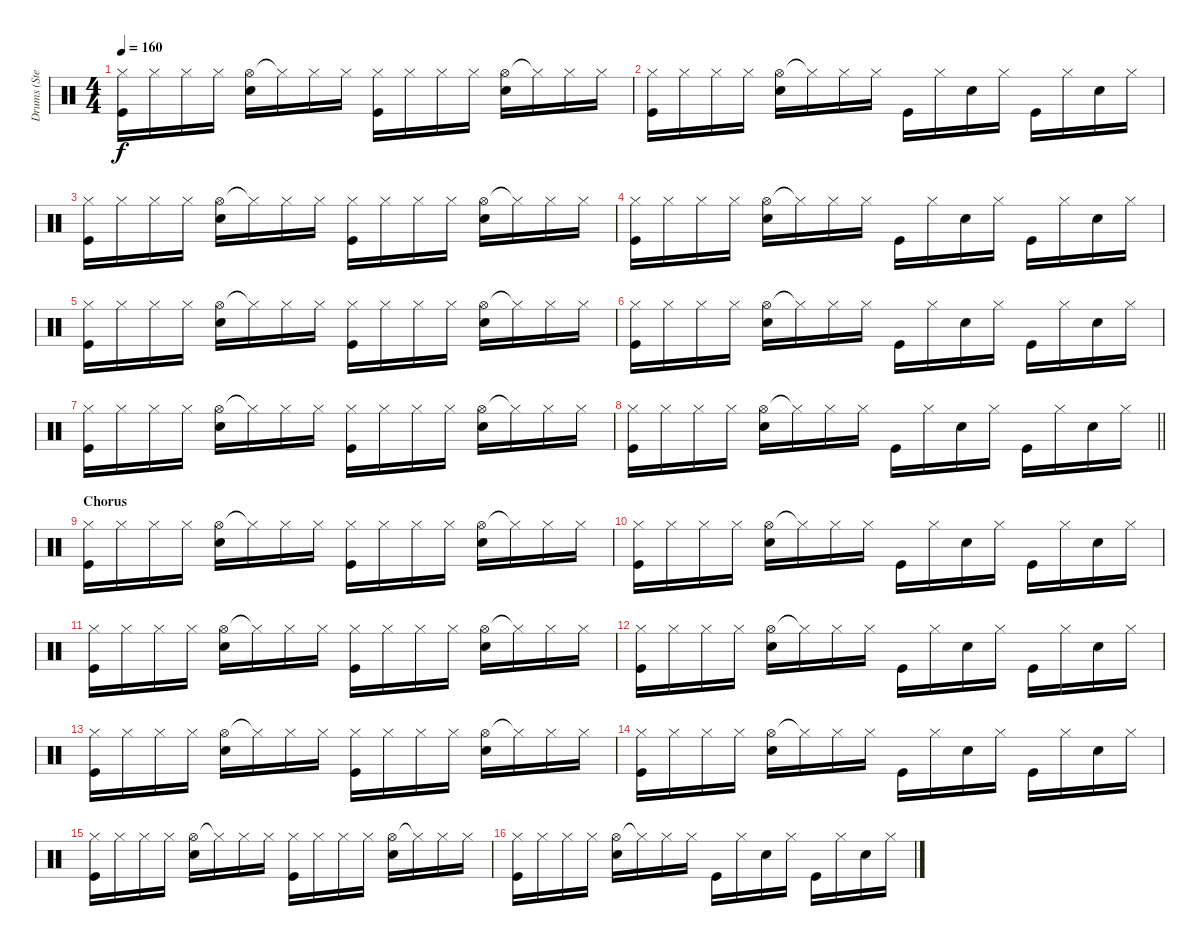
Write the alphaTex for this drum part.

\track ("Drums (Stephen Morris)" "Drums (Ste") {instrument percussion}
\staff {score}
\articulation defaults
\ts (4 4)
\tempo 160
\clef neutral
\ks c
("Hi-Hat (closed)" "Kick (hit)").16{dy f} "Hi-Hat (closed)".16 "Hi-Hat (closed)".16 "Hi-Hat (closed)".16 ("Hi-Hat (open)" "Electric Snare (hit)").16 "Hi-Hat (closed)"{t}.16 "Hi-Hat (closed)".16 "Hi-Hat (closed)".16 ("Hi-Hat (closed)" "Kick (hit)").16 "Hi-Hat (closed)".16 "Hi-Hat (closed)".16 "Hi-Hat (closed)".16 ("Hi-Hat (open)" "Electric Snare (hit)").16 "Hi-Hat (closed)"{t}.16 "Hi-Hat (closed)".16 "Hi-Hat (closed)".16 |
("Hi-Hat (closed)" "Kick (hit)").16 "Hi-Hat (closed)".16 "Hi-Hat (closed)".16 "Hi-Hat (closed)".16 ("Hi-Hat (open)" "Electric Snare (hit)").16 "Hi-Hat (closed)"{t}.16 "Hi-Hat (closed)".16 "Hi-Hat (closed)".16 "Kick (hit)".16 "Hi-Hat (closed)".16 "Electric Snare (hit)".16 "Hi-Hat (closed)".16 "Kick (hit)".16 "Hi-Hat (closed)".16 "Electric Snare (hit)".16 "Hi-Hat (closed)".16 |
("Hi-Hat (closed)" "Kick (hit)").16 "Hi-Hat (closed)".16 "Hi-Hat (closed)".16 "Hi-Hat (closed)".16 ("Hi-Hat (open)" "Electric Snare (hit)").16 "Hi-Hat (closed)"{t}.16 "Hi-Hat (closed)".16 "Hi-Hat (closed)".16 ("Hi-Hat (closed)" "Kick (hit)").16 "Hi-Hat (closed)".16 "Hi-Hat (closed)".16 "Hi-Hat (closed)".16 ("Hi-Hat (open)" "Electric Snare (hit)").16 "Hi-Hat (closed)"{t}.16 "Hi-Hat (closed)".16 "Hi-Hat (closed)".16 |
("Hi-Hat (closed)" "Kick (hit)").16 "Hi-Hat (closed)".16 "Hi-Hat (closed)".16 "Hi-Hat (closed)".16 ("Hi-Hat (open)" "Electric Snare (hit)").16 "Hi-Hat (closed)"{t}.16 "Hi-Hat (closed)".16 "Hi-Hat (closed)".16 "Kick (hit)".16 "Hi-Hat (closed)".16 "Electric Snare (hit)".16 "Hi-Hat (closed)".16 "Kick (hit)".16 "Hi-Hat (closed)".16 "Electric Snare (hit)".16 "Hi-Hat (closed)".16 |
("Hi-Hat (closed)" "Kick (hit)").16 "Hi-Hat (closed)".16 "Hi-Hat (closed)".16 "Hi-Hat (closed)".16 ("Hi-Hat (open)" "Electric Snare (hit)").16 "Hi-Hat (closed)"{t}.16 "Hi-Hat (closed)".16 "Hi-Hat (closed)".16 ("Hi-Hat (closed)" "Kick (hit)").16 "Hi-Hat (closed)".16 "Hi-Hat (closed)".16 "Hi-Hat (closed)".16 ("Hi-Hat (open)" "Electric Snare (hit)").16 "Hi-Hat (closed)"{t}.16 "Hi-Hat (closed)".16 "Hi-Hat (closed)".16 |
("Hi-Hat (closed)" "Kick (hit)").16 "Hi-Hat (closed)".16 "Hi-Hat (closed)".16 "Hi-Hat (closed)".16 ("Hi-Hat (open)" "Electric Snare (hit)").16 "Hi-Hat (closed)"{t}.16 "Hi-Hat (closed)".16 "Hi-Hat (closed)".16 "Kick (hit)".16 "Hi-Hat (closed)".16 "Electric Snare (hit)".16 "Hi-Hat (closed)".16 "Kick (hit)".16 "Hi-Hat (closed)".16 "Electric Snare (hit)".16 "Hi-Hat (closed)".16 |
("Hi-Hat (closed)" "Kick (hit)").16 "Hi-Hat (closed)".16 "Hi-Hat (closed)".16 "Hi-Hat (closed)".16 ("Hi-Hat (open)" "Electric Snare (hit)").16 "Hi-Hat (closed)"{t}.16 "Hi-Hat (closed)".16 "Hi-Hat (closed)".16 ("Hi-Hat (closed)" "Kick (hit)").16 "Hi-Hat (closed)".16 "Hi-Hat (closed)".16 "Hi-Hat (closed)".16 ("Hi-Hat (open)" "Electric Snare (hit)").16 "Hi-Hat (closed)"{t}.16 "Hi-Hat (closed)".16 "Hi-Hat (closed)".16 |
\barLineRight lightlight
("Hi-Hat (closed)" "Kick (hit)").16 "Hi-Hat (closed)".16 "Hi-Hat (closed)".16 "Hi-Hat (closed)".16 ("Hi-Hat (open)" "Electric Snare (hit)").16 "Hi-Hat (closed)"{t}.16 "Hi-Hat (closed)".16 "Hi-Hat (closed)".16 "Kick (hit)".16 "Hi-Hat (closed)".16 "Electric Snare (hit)".16 "Hi-Hat (closed)".16 "Kick (hit)".16 "Hi-Hat (closed)".16 "Electric Snare (hit)".16 "Hi-Hat (closed)".16 |
\section ("" "Chorus")
("Hi-Hat (closed)" "Kick (hit)").16 "Hi-Hat (closed)".16 "Hi-Hat (closed)".16 "Hi-Hat (closed)".16 ("Hi-Hat (open)" "Electric Snare (hit)").16 "Hi-Hat (closed)"{t}.16 "Hi-Hat (closed)".16 "Hi-Hat (closed)".16 ("Hi-Hat (closed)" "Kick (hit)").16 "Hi-Hat (closed)".16 "Hi-Hat (closed)".16 "Hi-Hat (closed)".16 ("Hi-Hat (open)" "Electric Snare (hit)").16 "Hi-Hat (closed)"{t}.16 "Hi-Hat (closed)".16 "Hi-Hat (closed)".16 |
("Hi-Hat (closed)" "Kick (hit)").16 "Hi-Hat (closed)".16 "Hi-Hat (closed)".16 "Hi-Hat (closed)".16 ("Hi-Hat (open)" "Electric Snare (hit)").16 "Hi-Hat (closed)"{t}.16 "Hi-Hat (closed)".16 "Hi-Hat (closed)".16 "Kick (hit)".16 "Hi-Hat (closed)".16 "Electric Snare (hit)".16 "Hi-Hat (closed)".16 "Kick (hit)".16 "Hi-Hat (closed)".16 "Electric Snare (hit)".16 "Hi-Hat (closed)".16 |
("Hi-Hat (closed)" "Kick (hit)").16 "Hi-Hat (closed)".16 "Hi-Hat (closed)".16 "Hi-Hat (closed)".16 ("Hi-Hat (open)" "Electric Snare (hit)").16 "Hi-Hat (closed)"{t}.16 "Hi-Hat (closed)".16 "Hi-Hat (closed)".16 ("Hi-Hat (closed)" "Kick (hit)").16 "Hi-Hat (closed)".16 "Hi-Hat (closed)".16 "Hi-Hat (closed)".16 ("Hi-Hat (open)" "Electric Snare (hit)").16 "Hi-Hat (closed)"{t}.16 "Hi-Hat (closed)".16 "Hi-Hat (closed)".16 |
("Hi-Hat (closed)" "Kick (hit)").16 "Hi-Hat (closed)".16 "Hi-Hat (closed)".16 "Hi-Hat (closed)".16 ("Hi-Hat (open)" "Electric Snare (hit)").16 "Hi-Hat (closed)"{t}.16 "Hi-Hat (closed)".16 "Hi-Hat (closed)".16 "Kick (hit)".16 "Hi-Hat (closed)".16 "Electric Snare (hit)".16 "Hi-Hat (closed)".16 "Kick (hit)".16 "Hi-Hat (closed)".16 "Electric Snare (hit)".16 "Hi-Hat (closed)".16 |
("Hi-Hat (closed)" "Kick (hit)").16 "Hi-Hat (closed)".16 "Hi-Hat (closed)".16 "Hi-Hat (closed)".16 ("Hi-Hat (open)" "Electric Snare (hit)").16 "Hi-Hat (closed)"{t}.16 "Hi-Hat (closed)".16 "Hi-Hat (closed)".16 ("Hi-Hat (closed)" "Kick (hit)").16 "Hi-Hat (closed)".16 "Hi-Hat (closed)".16 "Hi-Hat (closed)".16 ("Hi-Hat (open)" "Electric Snare (hit)").16 "Hi-Hat (closed)"{t}.16 "Hi-Hat (closed)".16 "Hi-Hat (closed)".16 |
("Hi-Hat (closed)" "Kick (hit)").16 "Hi-Hat (closed)".16 "Hi-Hat (closed)".16 "Hi-Hat (closed)".16 ("Hi-Hat (open)" "Electric Snare (hit)").16 "Hi-Hat (closed)"{t}.16 "Hi-Hat (closed)".16 "Hi-Hat (closed)".16 "Kick (hit)".16 "Hi-Hat (closed)".16 "Electric Snare (hit)".16 "Hi-Hat (closed)".16 "Kick (hit)".16 "Hi-Hat (closed)".16 "Electric Snare (hit)".16 "Hi-Hat (closed)".16 |
("Hi-Hat (closed)" "Kick (hit)").16 "Hi-Hat (closed)".16 "Hi-Hat (closed)".16 "Hi-Hat (closed)".16 ("Hi-Hat (open)" "Electric Snare (hit)").16 "Hi-Hat (closed)"{t}.16 "Hi-Hat (closed)".16 "Hi-Hat (closed)".16 ("Hi-Hat (closed)" "Kick (hit)").16 "Hi-Hat (closed)".16 "Hi-Hat (closed)".16 "Hi-Hat (closed)".16 ("Hi-Hat (open)" "Electric Snare (hit)").16 "Hi-Hat (closed)"{t}.16 "Hi-Hat (closed)".16 "Hi-Hat (closed)".16 |
("Hi-Hat (closed)" "Kick (hit)").16 "Hi-Hat (closed)".16 "Hi-Hat (closed)".16 "Hi-Hat (closed)".16 ("Hi-Hat (open)" "Electric Snare (hit)").16 "Hi-Hat (closed)"{t}.16 "Hi-Hat (closed)".16 "Hi-Hat (closed)".16 "Kick (hit)".16 "Hi-Hat (closed)".16 "Electric Snare (hit)".16 "Hi-Hat (closed)".16 "Kick (hit)".16 "Hi-Hat (closed)".16 "Electric Snare (hit)".16 "Hi-Hat (closed)".16
